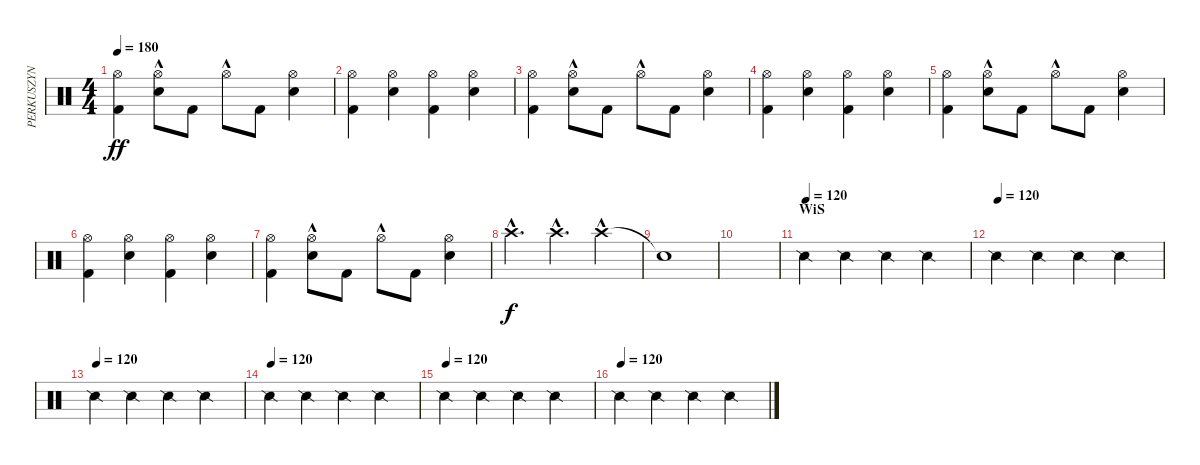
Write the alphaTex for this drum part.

\track ("PERKUSZYN" "PERKUSZYN") {instrument percussion}
\staff {score}
\articulation defaults
\ts (4 4)
\tempo 180
\clef neutral
\ks c
("Kick (hit) 2" "Hi-Hat (open)").4{dy ff} ("Snare (hit) 2" "Hi-Hat (open)"{hac}).8 "Kick (hit) 2".8 "Hi-Hat (open)"{hac}.8 "Kick (hit) 2".8 ("Snare (hit) 2" "Hi-Hat (open)").4 |
("Kick (hit) 2" "Hi-Hat (open)").4 ("Snare (hit) 2" "Hi-Hat (open)").4 ("Kick (hit) 2" "Hi-Hat (open)").4 ("Snare (hit) 2" "Hi-Hat (open)").4 |
("Kick (hit) 2" "Hi-Hat (open)").4 ("Snare (hit) 2" "Hi-Hat (open)"{hac}).8 "Kick (hit) 2".8 "Hi-Hat (open)"{hac}.8 "Kick (hit) 2".8 ("Snare (hit) 2" "Hi-Hat (open)").4 |
("Kick (hit) 2" "Hi-Hat (open)").4 ("Snare (hit) 2" "Hi-Hat (open)").4 ("Kick (hit) 2" "Hi-Hat (open)").4 ("Snare (hit) 2" "Hi-Hat (open)").4 |
("Kick (hit) 2" "Hi-Hat (open)").4 ("Snare (hit) 2" "Hi-Hat (open)"{hac}).8 "Kick (hit) 2".8 "Hi-Hat (open)"{hac}.8 "Kick (hit) 2".8 ("Snare (hit) 2" "Hi-Hat (open)").4 |
("Kick (hit) 2" "Hi-Hat (open)").4 ("Snare (hit) 2" "Hi-Hat (open)").4 ("Kick (hit) 2" "Hi-Hat (open)").4 ("Snare (hit) 2" "Hi-Hat (open)").4 |
("Kick (hit) 2" "Hi-Hat (open)").4 ("Snare (hit) 2" "Hi-Hat (open)"{hac}).8 "Kick (hit) 2".8 "Hi-Hat (open)"{hac}.8 "Kick (hit) 2".8 ("Snare (hit) 2" "Hi-Hat (open)").4 |
"Crash high (hit)"{hac}.4{d dy f} "Crash high (hit)"{hac}.4{d} "Crash high (hit)"{hac}.4 |
"Snare (hit)"{t}.1 |
|
\section ("" "WiS")
\tempo (120)
"Snare (side stick) 2".4 "Snare (side stick) 2".4 "Snare (side stick) 2".4 "Snare (side stick) 2".4 |
\tempo (120)
"Snare (side stick) 2".4 "Snare (side stick) 2".4 "Snare (side stick) 2".4 "Snare (side stick) 2".4 |
\tempo (120)
"Snare (side stick) 2".4 "Snare (side stick) 2".4 "Snare (side stick) 2".4 "Snare (side stick) 2".4 |
\tempo (120)
"Snare (side stick) 2".4 "Snare (side stick) 2".4 "Snare (side stick) 2".4 "Snare (side stick) 2".4 |
\tempo (120)
"Snare (side stick) 2".4 "Snare (side stick) 2".4 "Snare (side stick) 2".4 "Snare (side stick) 2".4 |
\tempo (120)
"Snare (side stick) 2".4 "Snare (side stick) 2".4 "Snare (side stick) 2".4 "Snare (side stick) 2".4
